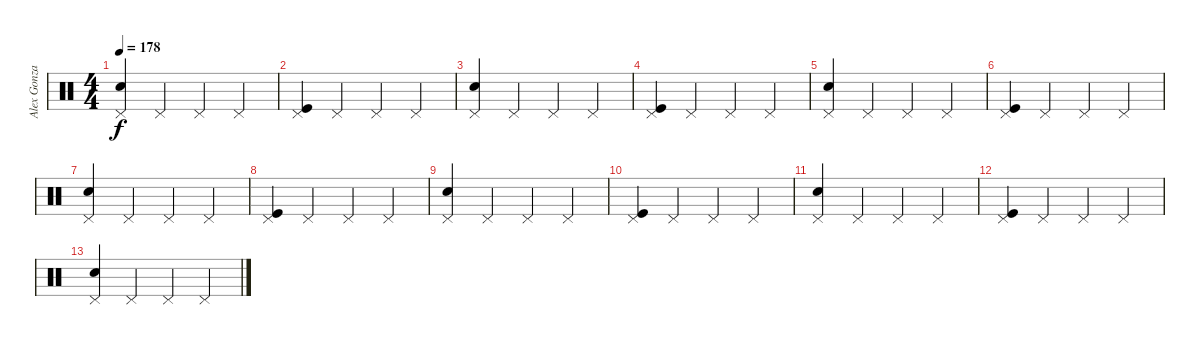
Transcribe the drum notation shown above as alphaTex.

\track ("Alex Gonzales" "Alex Gonza") {instrument percussion}
\staff {score}
\articulation defaults
\ts (4 4)
\tempo 178
\clef neutral
\ks c
("Pedal Hi-Hat (hit)" "Snare (hit) 2").4{dy f} "Pedal Hi-Hat (hit)".4 "Pedal Hi-Hat (hit)".4 "Pedal Hi-Hat (hit)".4 |
("Pedal Hi-Hat (hit)" "Kick (hit)").4 "Pedal Hi-Hat (hit)".4 "Pedal Hi-Hat (hit)".4 "Pedal Hi-Hat (hit)".4 |
("Pedal Hi-Hat (hit)" "Snare (hit) 2").4 "Pedal Hi-Hat (hit)".4 "Pedal Hi-Hat (hit)".4 "Pedal Hi-Hat (hit)".4 |
("Pedal Hi-Hat (hit)" "Kick (hit)").4 "Pedal Hi-Hat (hit)".4 "Pedal Hi-Hat (hit)".4 "Pedal Hi-Hat (hit)".4 |
("Pedal Hi-Hat (hit)" "Snare (hit) 2").4 "Pedal Hi-Hat (hit)".4 "Pedal Hi-Hat (hit)".4 "Pedal Hi-Hat (hit)".4 |
("Pedal Hi-Hat (hit)" "Kick (hit)").4 "Pedal Hi-Hat (hit)".4 "Pedal Hi-Hat (hit)".4 "Pedal Hi-Hat (hit)".4 |
("Pedal Hi-Hat (hit)" "Snare (hit) 2").4 "Pedal Hi-Hat (hit)".4 "Pedal Hi-Hat (hit)".4 "Pedal Hi-Hat (hit)".4 |
("Pedal Hi-Hat (hit)" "Kick (hit)").4 "Pedal Hi-Hat (hit)".4 "Pedal Hi-Hat (hit)".4 "Pedal Hi-Hat (hit)".4 |
("Pedal Hi-Hat (hit)" "Snare (hit) 2").4 "Pedal Hi-Hat (hit)".4 "Pedal Hi-Hat (hit)".4 "Pedal Hi-Hat (hit)".4 |
("Pedal Hi-Hat (hit)" "Kick (hit)").4 "Pedal Hi-Hat (hit)".4 "Pedal Hi-Hat (hit)".4 "Pedal Hi-Hat (hit)".4 |
("Pedal Hi-Hat (hit)" "Snare (hit) 2").4 "Pedal Hi-Hat (hit)".4 "Pedal Hi-Hat (hit)".4 "Pedal Hi-Hat (hit)".4 |
("Pedal Hi-Hat (hit)" "Kick (hit)").4 "Pedal Hi-Hat (hit)".4 "Pedal Hi-Hat (hit)".4 "Pedal Hi-Hat (hit)".4 |
("Pedal Hi-Hat (hit)" "Snare (hit) 2").4 "Pedal Hi-Hat (hit)".4 "Pedal Hi-Hat (hit)".4 "Pedal Hi-Hat (hit)".4
